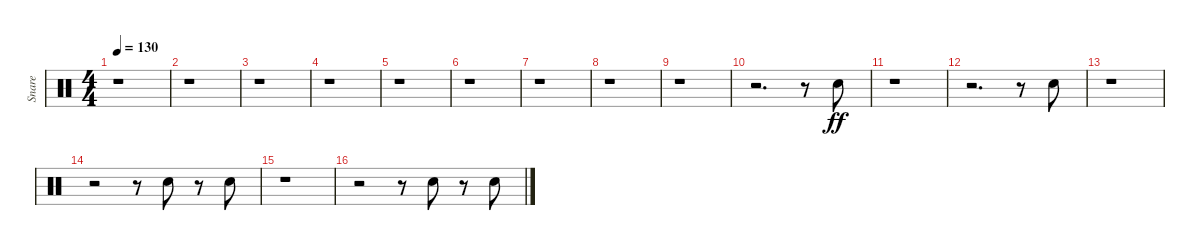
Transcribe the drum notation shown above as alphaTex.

\track ("Snare" "Snare") {instrument percussion}
\staff {score}
\articulation defaults
\ts (4 4)
\tempo 130
\clef neutral
\ks c
r.1{dy ff} |
r.1 |
r.1 |
r.1 |
r.1 |
r.1 |
r.1 |
r.1 |
r.1 |
r.2{d} r.8 "Snare (hit) 2".8 |
r.1 |
r.2{d} r.8 "Snare (hit) 2".8 |
r.1 |
r.2 r.8 "Snare (hit) 2".8 r.8 "Snare (hit) 2".8 |
r.1 |
r.2 r.8 "Snare (hit) 2".8 r.8 "Snare (hit) 2".8
